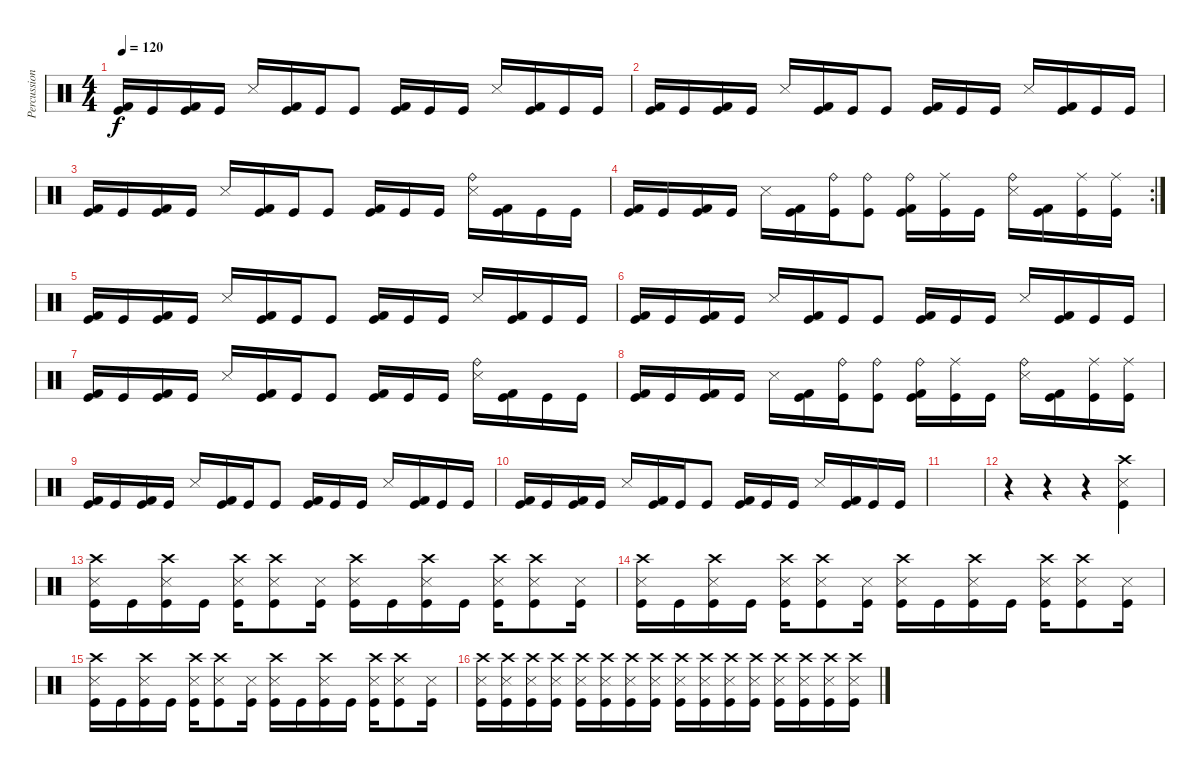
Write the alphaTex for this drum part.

\track ("Percussion" "Percussion") {instrument percussion}
\staff {score}
\articulation defaults
\ts (4 4)
\tempo 120
\clef neutral
\ks c
("Kick (hit)" "Kick (hit) 2").16{dy f} "Kick (hit)".16 ("Kick (hit)" "Kick (hit) 2").16 "Kick (hit)".16 "Snare (side stick) 3".16 ("Kick (hit)" "Kick (hit) 2").16 "Kick (hit)".16 "Kick (hit)".8 ("Kick (hit)" "Kick (hit) 2").16 "Kick (hit)".16 "Kick (hit)".16 "Snare (side stick) 3".16 ("Kick (hit)" "Kick (hit) 2").16 "Kick (hit)".16 "Kick (hit)".16 |
("Kick (hit)" "Kick (hit) 2").16 "Kick (hit)".16 ("Kick (hit)" "Kick (hit) 2").16 "Kick (hit)".16 "Snare (side stick) 3".16 ("Kick (hit)" "Kick (hit) 2").16 "Kick (hit)".16 "Kick (hit)".8 ("Kick (hit)" "Kick (hit) 2").16 "Kick (hit)".16 "Kick (hit)".16 "Snare (side stick) 3".16 ("Kick (hit)" "Kick (hit) 2").16 "Kick (hit)".16 "Kick (hit)".16 |
("Kick (hit)" "Kick (hit) 2").16 "Kick (hit)".16 ("Kick (hit)" "Kick (hit) 2").16 "Kick (hit)".16 "Snare (side stick) 3".16 ("Kick (hit)" "Kick (hit) 2").16 "Kick (hit)".16 "Kick (hit)".8 ("Kick (hit)" "Kick (hit) 2").16 "Kick (hit)".16 "Kick (hit)".16 ("Ride (bell)" "Snare (side stick) 3").16 ("Kick (hit)" "Kick (hit) 2").16 "Kick (hit)".16 "Kick (hit)".16 |
\rc 2
("Kick (hit)" "Kick (hit) 2").16 "Kick (hit)".16 ("Kick (hit)" "Kick (hit) 2").16 "Kick (hit)".16 "Snare (side stick) 3".16 ("Kick (hit)" "Kick (hit) 2").16 ("Ride (bell)" "Kick (hit)").16 ("Ride (bell)" "Kick (hit)").8 ("Ride (bell)" "Kick (hit)" "Kick (hit) 2").16 ("Ride (middle)" "Kick (hit)").16 "Kick (hit)".16 ("Ride (bell)" "Snare (side stick) 3").16 ("Kick (hit)" "Kick (hit) 2").16 ("Ride (middle)" "Kick (hit)").16 ("Ride (middle)" "Kick (hit)").16 |
("Kick (hit)" "Kick (hit) 2").16 "Kick (hit)".16 ("Kick (hit)" "Kick (hit) 2").16 "Kick (hit)".16 "Snare (side stick) 3".16 ("Kick (hit)" "Kick (hit) 2").16 "Kick (hit)".16 "Kick (hit)".8 ("Kick (hit)" "Kick (hit) 2").16 "Kick (hit)".16 "Kick (hit)".16 "Snare (side stick) 3".16 ("Kick (hit)" "Kick (hit) 2").16 "Kick (hit)".16 "Kick (hit)".16 |
("Kick (hit)" "Kick (hit) 2").16 "Kick (hit)".16 ("Kick (hit)" "Kick (hit) 2").16 "Kick (hit)".16 "Snare (side stick) 3".16 ("Kick (hit)" "Kick (hit) 2").16 "Kick (hit)".16 "Kick (hit)".8 ("Kick (hit)" "Kick (hit) 2").16 "Kick (hit)".16 "Kick (hit)".16 "Snare (side stick) 3".16 ("Kick (hit)" "Kick (hit) 2").16 "Kick (hit)".16 "Kick (hit)".16 |
("Kick (hit)" "Kick (hit) 2").16 "Kick (hit)".16 ("Kick (hit)" "Kick (hit) 2").16 "Kick (hit)".16 "Snare (side stick) 3".16 ("Kick (hit)" "Kick (hit) 2").16 "Kick (hit)".16 "Kick (hit)".8 ("Kick (hit)" "Kick (hit) 2").16 "Kick (hit)".16 "Kick (hit)".16 ("Ride (bell)" "Snare (side stick) 3").16 ("Kick (hit)" "Kick (hit) 2").16 "Kick (hit)".16 "Kick (hit)".16 |
("Kick (hit)" "Kick (hit) 2").16 "Kick (hit)".16 ("Kick (hit)" "Kick (hit) 2").16 "Kick (hit)".16 "Snare (side stick) 3".16 ("Kick (hit)" "Kick (hit) 2").16 ("Ride (bell)" "Kick (hit)").16 ("Ride (bell)" "Kick (hit)").8 ("Ride (bell)" "Kick (hit)" "Kick (hit) 2").16 ("Ride (middle)" "Kick (hit)").16 "Kick (hit)".16 ("Ride (bell)" "Snare (side stick) 3").16 ("Kick (hit)" "Kick (hit) 2").16 ("Ride (middle)" "Kick (hit)").16 ("Ride (middle)" "Kick (hit)").16 |
("Kick (hit)" "Kick (hit) 2").16 "Kick (hit)".16 ("Kick (hit)" "Kick (hit) 2").16 "Kick (hit)".16 "Snare (side stick) 3".16 ("Kick (hit)" "Kick (hit) 2").16 "Kick (hit)".16 "Kick (hit)".8 ("Kick (hit)" "Kick (hit) 2").16 "Kick (hit)".16 "Kick (hit)".16 "Snare (side stick) 3".16 ("Kick (hit)" "Kick (hit) 2").16 "Kick (hit)".16 "Kick (hit)".16 |
("Kick (hit)" "Kick (hit) 2").16 "Kick (hit)".16 ("Kick (hit)" "Kick (hit) 2").16 "Kick (hit)".16 "Snare (side stick) 3".16 ("Kick (hit)" "Kick (hit) 2").16 "Kick (hit)".16 "Kick (hit)".8 ("Kick (hit)" "Kick (hit) 2").16 "Kick (hit)".16 "Kick (hit)".16 "Snare (side stick) 3".16 ("Kick (hit)" "Kick (hit) 2").16 "Kick (hit)".16 "Kick (hit)".16 |
|
r.4 r.4 r.4 ("Crash high (hit)" "Snare (side stick) 3" "Kick (hit)").4 |
("Crash high (hit)" "Snare (side stick) 3" "Kick (hit)").16 "Kick (hit)".16 ("Crash high (hit)" "Snare (side stick) 3" "Kick (hit)").16 "Kick (hit)".16 ("Crash high (hit)" "Snare (side stick) 3" "Kick (hit)").16 ("Crash high (hit)" "Snare (side stick) 3" "Kick (hit)").8 ("Snare (side stick) 3" "Kick (hit)").16 ("Crash high (hit)" "Snare (side stick) 3" "Kick (hit)").16 "Kick (hit)".16 ("Crash high (hit)" "Snare (side stick) 3" "Kick (hit)").16 "Kick (hit)".16 ("Crash high (hit)" "Snare (side stick) 3" "Kick (hit)").16 ("Crash high (hit)" "Snare (side stick) 3" "Kick (hit)").8 ("Snare (side stick) 3" "Kick (hit)").16 |
("Crash high (hit)" "Snare (side stick) 3" "Kick (hit)").16 "Kick (hit)".16 ("Crash high (hit)" "Snare (side stick) 3" "Kick (hit)").16 "Kick (hit)".16 ("Crash high (hit)" "Snare (side stick) 3" "Kick (hit)").16 ("Crash high (hit)" "Snare (side stick) 3" "Kick (hit)").8 ("Snare (side stick) 3" "Kick (hit)").16 ("Crash high (hit)" "Snare (side stick) 3" "Kick (hit)").16 "Kick (hit)".16 ("Crash high (hit)" "Snare (side stick) 3" "Kick (hit)").16 "Kick (hit)".16 ("Crash high (hit)" "Snare (side stick) 3" "Kick (hit)").16 ("Crash high (hit)" "Snare (side stick) 3" "Kick (hit)").8 ("Snare (side stick) 3" "Kick (hit)").16 |
("Crash high (hit)" "Snare (side stick) 3" "Kick (hit)").16 "Kick (hit)".16 ("Crash high (hit)" "Snare (side stick) 3" "Kick (hit)").16 "Kick (hit)".16 ("Crash high (hit)" "Snare (side stick) 3" "Kick (hit)").16 ("Crash high (hit)" "Snare (side stick) 3" "Kick (hit)").8 ("Snare (side stick) 3" "Kick (hit)").16 ("Crash high (hit)" "Snare (side stick) 3" "Kick (hit)").16 "Kick (hit)".16 ("Crash high (hit)" "Snare (side stick) 3" "Kick (hit)").16 "Kick (hit)".16 ("Crash high (hit)" "Snare (side stick) 3" "Kick (hit)").16 ("Crash high (hit)" "Snare (side stick) 3" "Kick (hit)").8 ("Snare (side stick) 3" "Kick (hit)").16 |
("Crash high (hit)" "Snare (side stick) 3" "Kick (hit)").16 ("Crash high (hit)" "Snare (side stick) 3" "Kick (hit)").16 ("Crash high (hit)" "Snare (side stick) 3" "Kick (hit)").16 ("Crash high (hit)" "Snare (side stick) 3" "Kick (hit)").16 ("Crash high (hit)" "Snare (side stick) 3" "Kick (hit)").16 ("Crash high (hit)" "Snare (side stick) 3" "Kick (hit)").16 ("Crash high (hit)" "Snare (side stick) 3" "Kick (hit)").16 ("Crash high (hit)" "Snare (side stick) 3" "Kick (hit)").16 ("Crash high (hit)" "Snare (side stick) 3" "Kick (hit)").16 ("Crash high (hit)" "Snare (side stick) 3" "Kick (hit)").16 ("Crash high (hit)" "Snare (side stick) 3" "Kick (hit)").16 ("Crash high (hit)" "Snare (side stick) 3" "Kick (hit)").16 ("Crash high (hit)" "Snare (side stick) 3" "Kick (hit)").16 ("Crash high (hit)" "Snare (side stick) 3" "Kick (hit)").16 ("Crash high (hit)" "Snare (side stick) 3" "Kick (hit)").16 ("Crash high (hit)" "Snare (side stick) 3" "Kick (hit)").16
